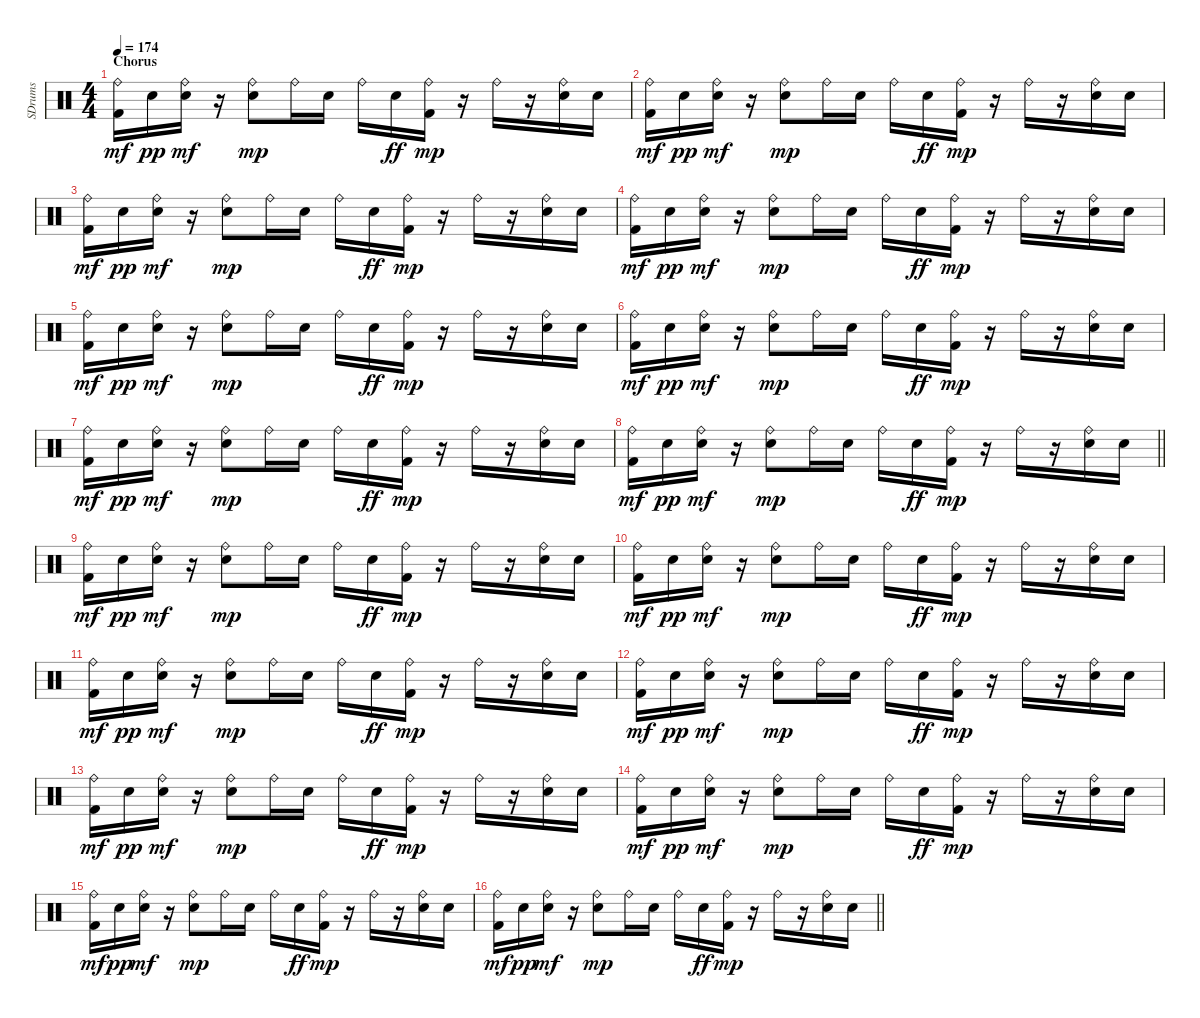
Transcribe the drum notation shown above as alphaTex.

\track ("SDrums" "SDrums") {instrument percussion}
\staff {score}
\articulation defaults
\ts (4 4)
\section ("" "Chorus")
\tempo 174
\clef neutral
\ks c
("Kick (hit) 2" "Ride (bell)").16{dy mf} "Snare (hit) 2".16{dy pp} ("Snare (hit) 2" "Ride (bell)").16{dy mf} r.16 ("Snare (hit) 2" "Ride (bell)").8{dy mp} "Ride (bell)".16 "Snare (hit) 2".16 "Ride (bell)".16 "Snare (hit) 2".16{dy ff} ("Kick (hit) 2" "Ride (bell)").16{dy mp} r.16 "Ride (bell)".16 r.16 ("Snare (hit) 2" "Ride (bell)").16 "Snare (hit) 2".16 |
("Kick (hit) 2" "Ride (bell)").16{dy mf} "Snare (hit) 2".16{dy pp} ("Snare (hit) 2" "Ride (bell)").16{dy mf} r.16 ("Snare (hit) 2" "Ride (bell)").8{dy mp} "Ride (bell)".16 "Snare (hit) 2".16 "Ride (bell)".16 "Snare (hit) 2".16{dy ff} ("Kick (hit) 2" "Ride (bell)").16{dy mp} r.16 "Ride (bell)".16 r.16 ("Snare (hit) 2" "Ride (bell)").16 "Snare (hit) 2".16 |
("Kick (hit) 2" "Ride (bell)").16{dy mf} "Snare (hit) 2".16{dy pp} ("Snare (hit) 2" "Ride (bell)").16{dy mf} r.16 ("Snare (hit) 2" "Ride (bell)").8{dy mp} "Ride (bell)".16 "Snare (hit) 2".16 "Ride (bell)".16 "Snare (hit) 2".16{dy ff} ("Kick (hit) 2" "Ride (bell)").16{dy mp} r.16 "Ride (bell)".16 r.16 ("Snare (hit) 2" "Ride (bell)").16 "Snare (hit) 2".16 |
("Kick (hit) 2" "Ride (bell)").16{dy mf} "Snare (hit) 2".16{dy pp} ("Snare (hit) 2" "Ride (bell)").16{dy mf} r.16 ("Snare (hit) 2" "Ride (bell)").8{dy mp} "Ride (bell)".16 "Snare (hit) 2".16 "Ride (bell)".16 "Snare (hit) 2".16{dy ff} ("Kick (hit) 2" "Ride (bell)").16{dy mp} r.16 "Ride (bell)".16 r.16 ("Snare (hit) 2" "Ride (bell)").16 "Snare (hit) 2".16 |
("Kick (hit) 2" "Ride (bell)").16{dy mf} "Snare (hit) 2".16{dy pp} ("Snare (hit) 2" "Ride (bell)").16{dy mf} r.16 ("Snare (hit) 2" "Ride (bell)").8{dy mp} "Ride (bell)".16 "Snare (hit) 2".16 "Ride (bell)".16 "Snare (hit) 2".16{dy ff} ("Kick (hit) 2" "Ride (bell)").16{dy mp} r.16 "Ride (bell)".16 r.16 ("Snare (hit) 2" "Ride (bell)").16 "Snare (hit) 2".16 |
("Kick (hit) 2" "Ride (bell)").16{dy mf} "Snare (hit) 2".16{dy pp} ("Snare (hit) 2" "Ride (bell)").16{dy mf} r.16 ("Snare (hit) 2" "Ride (bell)").8{dy mp} "Ride (bell)".16 "Snare (hit) 2".16 "Ride (bell)".16 "Snare (hit) 2".16{dy ff} ("Kick (hit) 2" "Ride (bell)").16{dy mp} r.16 "Ride (bell)".16 r.16 ("Snare (hit) 2" "Ride (bell)").16 "Snare (hit) 2".16 |
("Kick (hit) 2" "Ride (bell)").16{dy mf} "Snare (hit) 2".16{dy pp} ("Snare (hit) 2" "Ride (bell)").16{dy mf} r.16 ("Snare (hit) 2" "Ride (bell)").8{dy mp} "Ride (bell)".16 "Snare (hit) 2".16 "Ride (bell)".16 "Snare (hit) 2".16{dy ff} ("Kick (hit) 2" "Ride (bell)").16{dy mp} r.16 "Ride (bell)".16 r.16 ("Snare (hit) 2" "Ride (bell)").16 "Snare (hit) 2".16 |
\barLineRight lightlight
("Kick (hit) 2" "Ride (bell)").16{dy mf} "Snare (hit) 2".16{dy pp} ("Snare (hit) 2" "Ride (bell)").16{dy mf} r.16 ("Snare (hit) 2" "Ride (bell)").8{dy mp} "Ride (bell)".16 "Snare (hit) 2".16 "Ride (bell)".16 "Snare (hit) 2".16{dy ff} ("Kick (hit) 2" "Ride (bell)").16{dy mp} r.16 "Ride (bell)".16 r.16 ("Snare (hit) 2" "Ride (bell)").16 "Snare (hit) 2".16 |
("Kick (hit) 2" "Ride (bell)").16{dy mf} "Snare (hit) 2".16{dy pp} ("Snare (hit) 2" "Ride (bell)").16{dy mf} r.16 ("Snare (hit) 2" "Ride (bell)").8{dy mp} "Ride (bell)".16 "Snare (hit) 2".16 "Ride (bell)".16 "Snare (hit) 2".16{dy ff} ("Kick (hit) 2" "Ride (bell)").16{dy mp} r.16 "Ride (bell)".16 r.16 ("Snare (hit) 2" "Ride (bell)").16 "Snare (hit) 2".16 |
("Kick (hit) 2" "Ride (bell)").16{dy mf} "Snare (hit) 2".16{dy pp} ("Snare (hit) 2" "Ride (bell)").16{dy mf} r.16 ("Snare (hit) 2" "Ride (bell)").8{dy mp} "Ride (bell)".16 "Snare (hit) 2".16 "Ride (bell)".16 "Snare (hit) 2".16{dy ff} ("Kick (hit) 2" "Ride (bell)").16{dy mp} r.16 "Ride (bell)".16 r.16 ("Snare (hit) 2" "Ride (bell)").16 "Snare (hit) 2".16 |
("Kick (hit) 2" "Ride (bell)").16{dy mf} "Snare (hit) 2".16{dy pp} ("Snare (hit) 2" "Ride (bell)").16{dy mf} r.16 ("Snare (hit) 2" "Ride (bell)").8{dy mp} "Ride (bell)".16 "Snare (hit) 2".16 "Ride (bell)".16 "Snare (hit) 2".16{dy ff} ("Kick (hit) 2" "Ride (bell)").16{dy mp} r.16 "Ride (bell)".16 r.16 ("Snare (hit) 2" "Ride (bell)").16 "Snare (hit) 2".16 |
("Kick (hit) 2" "Ride (bell)").16{dy mf} "Snare (hit) 2".16{dy pp} ("Snare (hit) 2" "Ride (bell)").16{dy mf} r.16 ("Snare (hit) 2" "Ride (bell)").8{dy mp} "Ride (bell)".16 "Snare (hit) 2".16 "Ride (bell)".16 "Snare (hit) 2".16{dy ff} ("Kick (hit) 2" "Ride (bell)").16{dy mp} r.16 "Ride (bell)".16 r.16 ("Snare (hit) 2" "Ride (bell)").16 "Snare (hit) 2".16 |
("Kick (hit) 2" "Ride (bell)").16{dy mf} "Snare (hit) 2".16{dy pp} ("Snare (hit) 2" "Ride (bell)").16{dy mf} r.16 ("Snare (hit) 2" "Ride (bell)").8{dy mp} "Ride (bell)".16 "Snare (hit) 2".16 "Ride (bell)".16 "Snare (hit) 2".16{dy ff} ("Kick (hit) 2" "Ride (bell)").16{dy mp} r.16 "Ride (bell)".16 r.16 ("Snare (hit) 2" "Ride (bell)").16 "Snare (hit) 2".16 |
("Kick (hit) 2" "Ride (bell)").16{dy mf} "Snare (hit) 2".16{dy pp} ("Snare (hit) 2" "Ride (bell)").16{dy mf} r.16 ("Snare (hit) 2" "Ride (bell)").8{dy mp} "Ride (bell)".16 "Snare (hit) 2".16 "Ride (bell)".16 "Snare (hit) 2".16{dy ff} ("Kick (hit) 2" "Ride (bell)").16{dy mp} r.16 "Ride (bell)".16 r.16 ("Snare (hit) 2" "Ride (bell)").16 "Snare (hit) 2".16 |
("Kick (hit) 2" "Ride (bell)").16{dy mf} "Snare (hit) 2".16{dy pp} ("Snare (hit) 2" "Ride (bell)").16{dy mf} r.16 ("Snare (hit) 2" "Ride (bell)").8{dy mp} "Ride (bell)".16 "Snare (hit) 2".16 "Ride (bell)".16 "Snare (hit) 2".16{dy ff} ("Kick (hit) 2" "Ride (bell)").16{dy mp} r.16 "Ride (bell)".16 r.16 ("Snare (hit) 2" "Ride (bell)").16 "Snare (hit) 2".16 |
\barLineRight lightlight
("Kick (hit) 2" "Ride (bell)").16{dy mf} "Snare (hit) 2".16{dy pp} ("Snare (hit) 2" "Ride (bell)").16{dy mf} r.16 ("Snare (hit) 2" "Ride (bell)").8{dy mp} "Ride (bell)".16 "Snare (hit) 2".16 "Ride (bell)".16 "Snare (hit) 2".16{dy ff} ("Kick (hit) 2" "Ride (bell)").16{dy mp} r.16 "Ride (bell)".16 r.16 ("Snare (hit) 2" "Ride (bell)").16 "Snare (hit) 2".16
